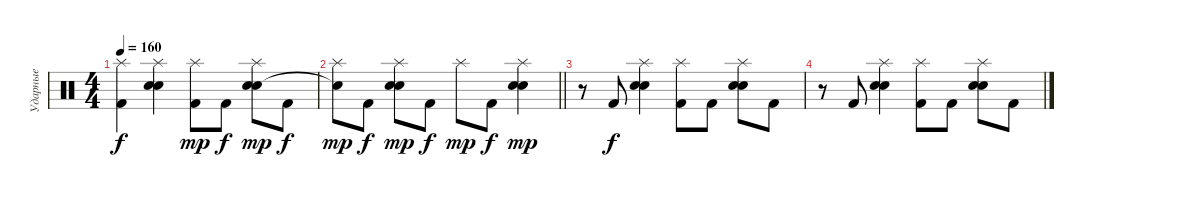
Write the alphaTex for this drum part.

\track ("Ударные" "Ударные") {instrument percussion}
\staff {score}
\articulation defaults
\ts (4 4)
\tempo 160
\clef neutral
\ks c
("Splash (hit)" "Kick (hit) 2").4{dy f} ("Splash (hit)" "Electric Snare (hit)" "Snare (hit) 2").4 ("Splash (hit)" "Kick (hit) 2").8{dy mp} "Kick (hit) 2".8{dy f} ("Splash (hit)" "Electric Snare (hit)" "Snare (hit) 2").8{dy mp} "Kick (hit) 2".8{dy f} |
\barLineRight lightlight
("Splash (hit)" "Snare (hit)"{t}).8{dy mp} "Kick (hit) 2".8{dy f} ("Splash (hit)" "Electric Snare (hit)" "Snare (hit) 2").8{dy mp} "Kick (hit) 2".8{dy f} "Splash (hit)".8{dy mp} "Kick (hit) 2".8{dy f} ("Splash (hit)" "Electric Snare (hit)" "Snare (hit) 2").4{dy mp} |
r.8 "Kick (hit) 2".8{dy f} ("Splash (hit)" "Electric Snare (hit)" "Snare (hit) 2").4 ("Splash (hit)" "Kick (hit) 2").8 "Kick (hit) 2".8 ("Splash (hit)" "Electric Snare (hit)" "Snare (hit) 2").8 "Kick (hit) 2".8 |
r.8 "Kick (hit) 2".8 ("Splash (hit)" "Electric Snare (hit)" "Snare (hit) 2").4 ("Splash (hit)" "Kick (hit) 2").8 "Kick (hit) 2".8 ("Splash (hit)" "Electric Snare (hit)" "Snare (hit) 2").8 "Kick (hit) 2".8
